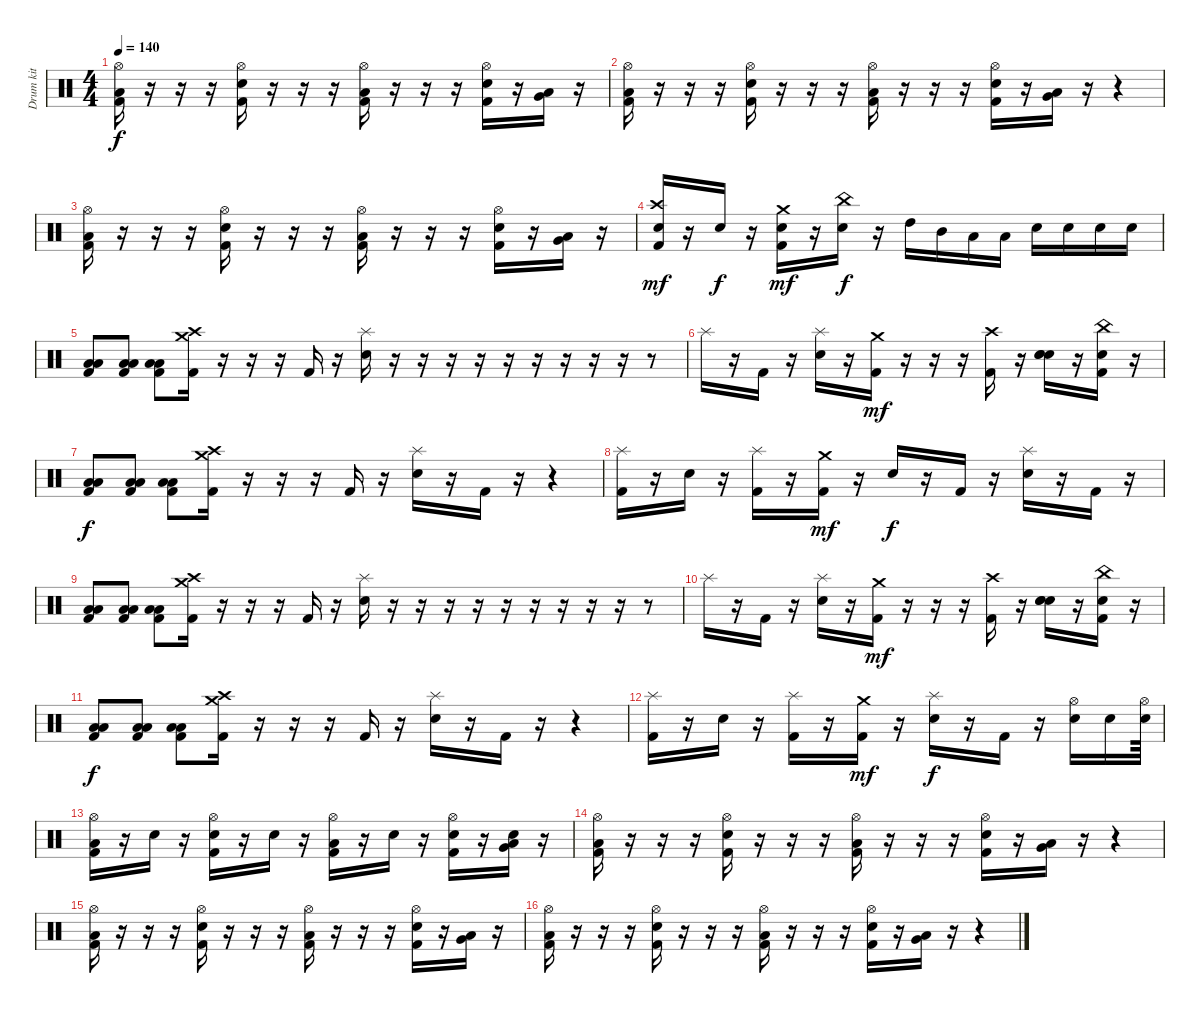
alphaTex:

\track ("Drum kit" "Drum kit") {solo instrument percussion}
\staff {score}
\articulation defaults
\ts (4 4)
\tempo 140
\clef neutral
\ks c
("Hi-Hat (open)" "Low Tom (hit)" "Kick (hit) 2").16{dy f} r.16 r.16 r.16 ("Hi-Hat (open)" "Electric Snare (hit)" "Kick (hit) 2").16 r.16 r.16 r.16 ("Hi-Hat (open)" "Low Tom (hit)" "Kick (hit) 2").16 r.16 r.16 r.16 ("Hi-Hat (open)" "Electric Snare (hit)" "Kick (hit) 2").16 r.16 ("Low Tom (hit)" "Very Low Tom (hit)").16 r.16 |
("Hi-Hat (open)" "Low Tom (hit)" "Kick (hit) 2").16 r.16 r.16 r.16 ("Hi-Hat (open)" "Electric Snare (hit)" "Kick (hit) 2").16 r.16 r.16 r.16 ("Hi-Hat (open)" "Low Tom (hit)" "Kick (hit) 2").16 r.16 r.16 r.16 ("Hi-Hat (open)" "Electric Snare (hit)" "Kick (hit) 2").16 r.16 ("Low Tom (hit)" "Very Low Tom (hit)").16 r.16 r.4 |
("Hi-Hat (open)" "Low Tom (hit)" "Kick (hit) 2").16 r.16 r.16 r.16 ("Hi-Hat (open)" "Electric Snare (hit)" "Kick (hit) 2").16 r.16 r.16 r.16 ("Hi-Hat (open)" "Low Tom (hit)" "Kick (hit) 2").16 r.16 r.16 r.16 ("Hi-Hat (open)" "Electric Snare (hit)" "Kick (hit) 2").16 r.16 ("Low Tom (hit)" "Very Low Tom (hit)").16 r.16 |
("Crash high (hit)" "Snare (hit)" "Kick (hit) 2").16{dy mf} r.16 "Electric Snare (hit)".16{dy f} r.16 ("Crash medium (hit)" "Snare (hit)" "Kick (hit) 2").16{dy mf} r.16 ("China (hit)" "Electric Snare (hit)").16{dy f} r.16 "High Tom (hit)".16 "Mid Tom (hit)".16 "Low Tom (hit)".16 "Low Tom (hit)".16 "Electric Snare (hit)".16 "Electric Snare (hit)".16 "Electric Snare (hit)".16 "Electric Snare (hit)".16 |
("Low Tom (hit)" "Low Floor Tom (hit)" "Kick (hit) 2").8 ("Low Tom (hit)" "Low Floor Tom (hit)" "Kick (hit) 2").8 ("Low Tom (hit)" "Low Floor Tom (hit)" "Kick (hit) 2").8 ("Crash medium (hit)" "Crash high (hit)" "Kick (hit) 2").16 r.16 r.16 r.16 "Kick (hit) 2".16 r.16 ("Splash (hit)" "Electric Snare (hit)").16 r.16 r.16 r.16 r.16 r.16 r.16 r.16 r.16 r.16 r.8 |
"Splash (hit)".16 r.16 "Kick (hit) 2".16 r.16 ("Splash (hit)" "Electric Snare (hit)").16 r.16 ("Crash medium (hit)" "Kick (hit) 2").16{dy mf} r.16 r.16 r.16 ("Crash high (hit)" "Kick (hit) 2").16 r.16 ("Snare (hit)" "Electric Snare (hit)" "Snare (hit)").16 r.16 ("China (hit)" "Snare (hit)" "Kick (hit) 2").16 r.16 |
("Low Tom (hit)" "Low Floor Tom (hit)" "Kick (hit) 2").8{dy f} ("Low Tom (hit)" "Low Floor Tom (hit)" "Kick (hit) 2").8 ("Low Tom (hit)" "Low Floor Tom (hit)" "Kick (hit) 2").8 ("Crash medium (hit)" "Crash high (hit)" "Kick (hit) 2").16 r.16 r.16 r.16 "Kick (hit) 2".16 r.16 ("Splash (hit)" "Electric Snare (hit)").16 r.16 "Kick (hit) 2".16 r.16 r.4 |
("Splash (hit)" "Kick (hit) 2").16 r.16 "Electric Snare (hit)".16 r.16 ("Splash (hit)" "Kick (hit) 2").16 r.16 ("Crash medium (hit)" "Kick (hit) 2").16{dy mf} r.16 "Snare (hit)".16{dy f} r.16 "Kick (hit) 2".16 r.16 ("Splash (hit)" "Electric Snare (hit)").16 r.16 "Kick (hit) 2".16 r.16 |
("Low Tom (hit)" "Low Floor Tom (hit)" "Kick (hit) 2").8 ("Low Tom (hit)" "Low Floor Tom (hit)" "Kick (hit) 2").8 ("Low Tom (hit)" "Low Floor Tom (hit)" "Kick (hit) 2").8 ("Crash medium (hit)" "Crash high (hit)" "Kick (hit) 2").16 r.16 r.16 r.16 "Kick (hit) 2".16 r.16 ("Splash (hit)" "Electric Snare (hit)").16 r.16 r.16 r.16 r.16 r.16 r.16 r.16 r.16 r.16 r.8 |
"Splash (hit)".16 r.16 "Kick (hit) 2".16 r.16 ("Splash (hit)" "Electric Snare (hit)").16 r.16 ("Crash medium (hit)" "Kick (hit) 2").16{dy mf} r.16 r.16 r.16 ("Crash high (hit)" "Kick (hit) 2").16 r.16 ("Snare (hit)" "Electric Snare (hit)" "Snare (hit)").16 r.16 ("China (hit)" "Snare (hit)" "Kick (hit) 2").16 r.16 |
("Low Tom (hit)" "Low Floor Tom (hit)" "Kick (hit) 2").8{dy f} ("Low Tom (hit)" "Low Floor Tom (hit)" "Kick (hit) 2").8 ("Low Tom (hit)" "Low Floor Tom (hit)" "Kick (hit) 2").8 ("Crash medium (hit)" "Crash high (hit)" "Kick (hit) 2").16 r.16 r.16 r.16 "Kick (hit) 2".16 r.16 ("Splash (hit)" "Electric Snare (hit)").16 r.16 "Kick (hit) 2".16 r.16 r.4 |
("Splash (hit)" "Kick (hit) 2").16 r.16 "Electric Snare (hit)".16 r.16 ("Splash (hit)" "Kick (hit) 2").16 r.16 ("Crash medium (hit)" "Kick (hit) 2").16{dy mf} r.16 ("Splash (hit)" "Electric Snare (hit)").16{dy f} r.16 "Kick (hit) 2".16 r.16 ("Hi-Hat (open)" "Electric Snare (hit)").16 "Snare (hit)".16 ("Hi-Hat (open)" "Electric Snare (hit)").64 |
("Hi-Hat (open)" "Low Tom (hit)" "Kick (hit) 2").16 r.16 "Snare (hit)".16 r.16 ("Hi-Hat (open)" "Electric Snare (hit)" "Kick (hit) 2").16 r.16 "Snare (hit)".16 r.16 ("Hi-Hat (open)" "Low Tom (hit)" "Kick (hit) 2").16 r.16 "Snare (hit)".16 r.16 ("Hi-Hat (open)" "Electric Snare (hit)" "Kick (hit) 2").16 r.16 ("Low Tom (hit)" "Very Low Tom (hit)" "Snare (hit)").16 r.16 |
("Hi-Hat (open)" "Low Tom (hit)" "Kick (hit) 2").16 r.16 r.16 r.16 ("Hi-Hat (open)" "Electric Snare (hit)" "Kick (hit) 2").16 r.16 r.16 r.16 ("Hi-Hat (open)" "Low Tom (hit)" "Kick (hit) 2").16 r.16 r.16 r.16 ("Hi-Hat (open)" "Electric Snare (hit)" "Kick (hit) 2").16 r.16 ("Low Tom (hit)" "Very Low Tom (hit)").16 r.16 r.4 |
("Hi-Hat (open)" "Low Tom (hit)" "Kick (hit) 2").16 r.16 r.16 r.16 ("Hi-Hat (open)" "Electric Snare (hit)" "Kick (hit) 2").16 r.16 r.16 r.16 ("Hi-Hat (open)" "Low Tom (hit)" "Kick (hit) 2").16 r.16 r.16 r.16 ("Hi-Hat (open)" "Electric Snare (hit)" "Kick (hit) 2").16 r.16 ("Low Tom (hit)" "Very Low Tom (hit)").16 r.16 |
("Hi-Hat (open)" "Low Tom (hit)" "Kick (hit) 2").16 r.16 r.16 r.16 ("Hi-Hat (open)" "Electric Snare (hit)" "Kick (hit) 2").16 r.16 r.16 r.16 ("Hi-Hat (open)" "Low Tom (hit)" "Kick (hit) 2").16 r.16 r.16 r.16 ("Hi-Hat (open)" "Electric Snare (hit)" "Kick (hit) 2").16 r.16 ("Low Tom (hit)" "Very Low Tom (hit)").16 r.16 r.4
